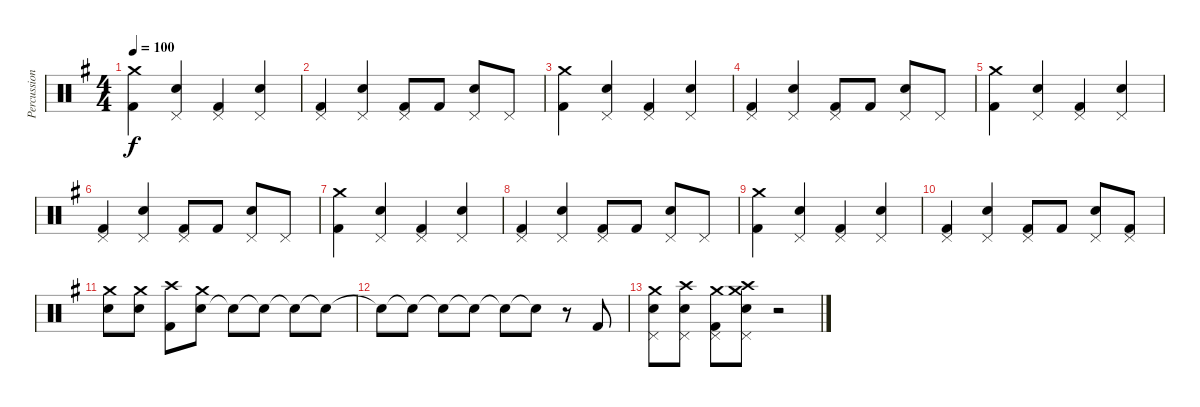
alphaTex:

\track ("Percussion" "Percussion") {instrument percussion}
\staff {score}
\articulation defaults
\ts (4 4)
\tempo 100
\clef neutral
\ks g
("Kick (hit) 2" "Crash medium (hit)").4{dy f} ("Snare (hit) 2" "Pedal Hi-Hat (hit)").4 ("Kick (hit) 2" "Pedal Hi-Hat (hit)").4 ("Snare (hit) 2" "Pedal Hi-Hat (hit)").4 |
("Kick (hit) 2" "Pedal Hi-Hat (hit)").4 ("Snare (hit) 2" "Pedal Hi-Hat (hit)").4 ("Kick (hit) 2" "Pedal Hi-Hat (hit)").8 "Kick (hit) 2".8 ("Snare (hit) 2" "Pedal Hi-Hat (hit)").8 "Pedal Hi-Hat (hit)".8 |
("Kick (hit) 2" "Crash medium (hit)").4 ("Snare (hit) 2" "Pedal Hi-Hat (hit)").4 ("Kick (hit) 2" "Pedal Hi-Hat (hit)").4 ("Snare (hit) 2" "Pedal Hi-Hat (hit)").4 |
("Kick (hit) 2" "Pedal Hi-Hat (hit)").4 ("Snare (hit) 2" "Pedal Hi-Hat (hit)").4 ("Kick (hit) 2" "Pedal Hi-Hat (hit)").8 "Kick (hit) 2".8 ("Snare (hit) 2" "Pedal Hi-Hat (hit)").8 "Pedal Hi-Hat (hit)".8 |
("Kick (hit) 2" "Crash medium (hit)").4 ("Snare (hit) 2" "Pedal Hi-Hat (hit)").4 ("Kick (hit) 2" "Pedal Hi-Hat (hit)").4 ("Snare (hit) 2" "Pedal Hi-Hat (hit)").4 |
("Kick (hit) 2" "Pedal Hi-Hat (hit)").4 ("Snare (hit) 2" "Pedal Hi-Hat (hit)").4 ("Kick (hit) 2" "Pedal Hi-Hat (hit)").8 "Kick (hit) 2".8 ("Snare (hit) 2" "Pedal Hi-Hat (hit)").8 "Pedal Hi-Hat (hit)".8 |
("Kick (hit) 2" "Crash medium (hit)").4 ("Snare (hit) 2" "Pedal Hi-Hat (hit)").4 ("Kick (hit) 2" "Pedal Hi-Hat (hit)").4 ("Snare (hit) 2" "Pedal Hi-Hat (hit)").4 |
("Kick (hit) 2" "Pedal Hi-Hat (hit)").4 ("Snare (hit) 2" "Pedal Hi-Hat (hit)").4 ("Kick (hit) 2" "Pedal Hi-Hat (hit)").8 "Kick (hit) 2".8 ("Snare (hit) 2" "Pedal Hi-Hat (hit)").8 "Pedal Hi-Hat (hit)".8 |
("Kick (hit) 2" "Crash medium (hit)").4 ("Snare (hit) 2" "Pedal Hi-Hat (hit)").4 ("Kick (hit) 2" "Pedal Hi-Hat (hit)").4 ("Snare (hit) 2" "Pedal Hi-Hat (hit)").4 |
("Kick (hit) 2" "Pedal Hi-Hat (hit)").4 ("Snare (hit) 2" "Pedal Hi-Hat (hit)").4 ("Kick (hit) 2" "Pedal Hi-Hat (hit)").8 "Kick (hit) 2".8 ("Snare (hit) 2" "Pedal Hi-Hat (hit)").8 ("Kick (hit) 2" "Pedal Hi-Hat (hit)").8 |
("Snare (hit) 2" "Crash medium (hit)").8 ("Snare (hit) 2" "Crash medium (hit)").8 ("Kick (hit) 2" "Crash high (hit)").8 ("Snare (hit) 2" "Crash medium (hit)").8 "Snare (hit)"{t}.8 "Snare (hit)"{t}.8 "Snare (hit)"{t}.8 "Snare (hit)"{t}.8 |
"Snare (hit)"{t}.8 "Snare (hit)"{t}.8 "Snare (hit)"{t}.8 "Snare (hit)"{t}.8 "Snare (hit)"{t}.8 "Snare (hit)"{t}.8 r.8 "Kick (hit) 2".8 |
("Snare (hit) 2" "Crash medium (hit)" "Pedal Hi-Hat (hit)").8 ("Snare (hit) 2" "Crash high (hit)" "Pedal Hi-Hat (hit)").8 ("Kick (hit) 2" "Crash medium (hit)" "Pedal Hi-Hat (hit)").8 ("Snare (hit) 2" "Crash medium (hit)" "Crash high (hit)" "Pedal Hi-Hat (hit)").8 r.2
